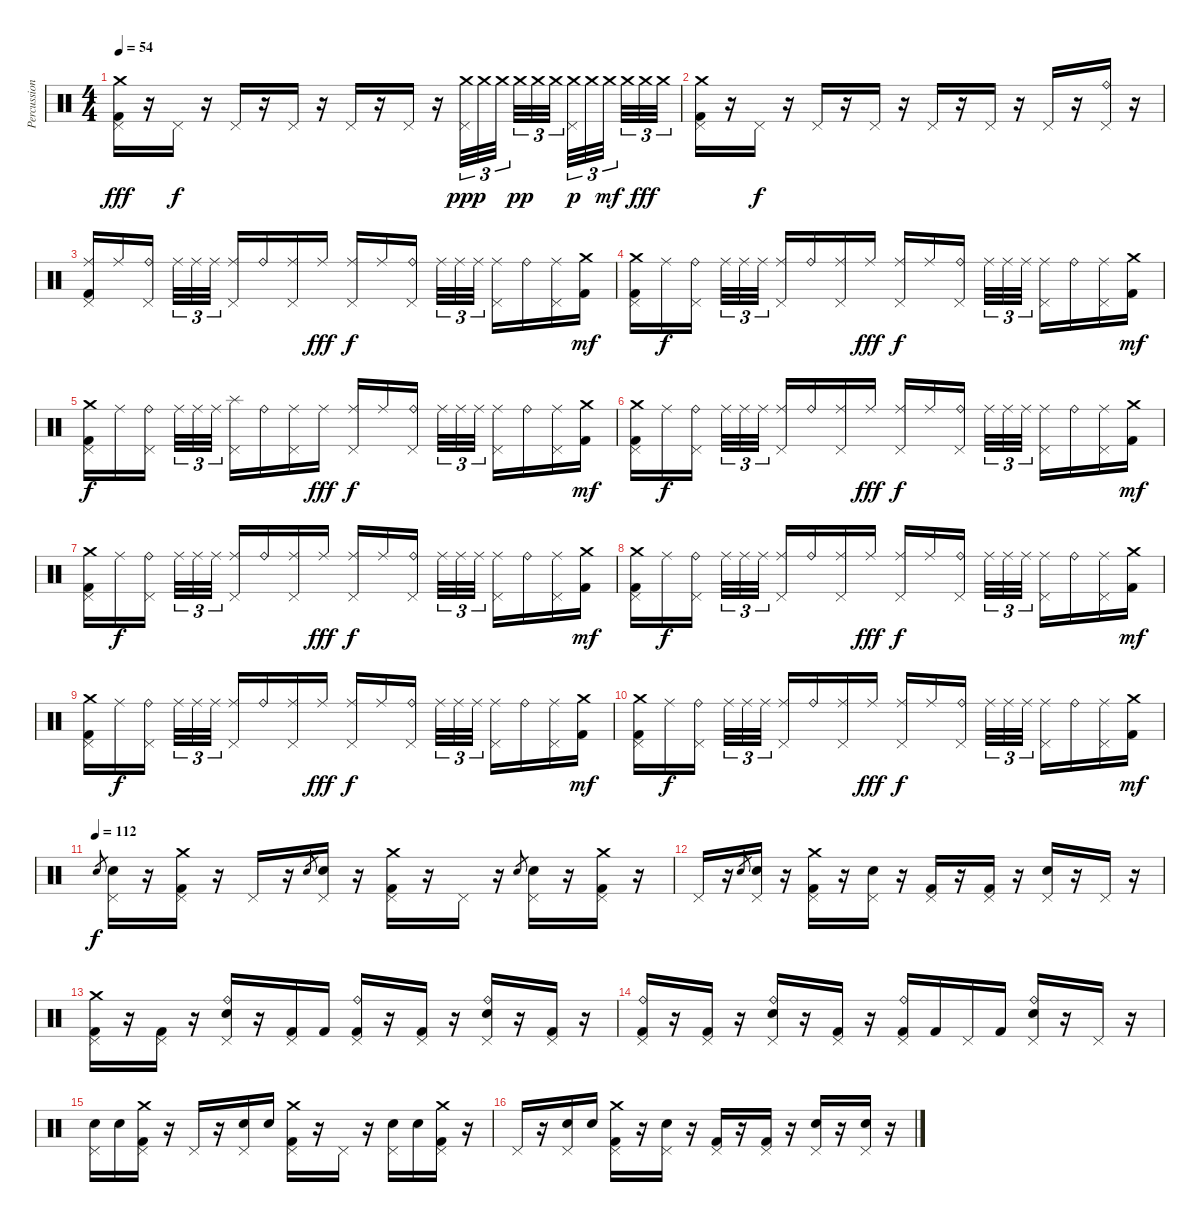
\track ("Percussion" "Percussion") {instrument percussion}
\staff {score}
\articulation defaults
\ts (4 4)
\tempo 54
\clef neutral
\ks c
("Crash medium (hit)" "Pedal Hi-Hat (hit)" "Kick (hit) 2").16{dy fff} r.16 "Pedal Hi-Hat (hit)".16{dy f} r.16 "Pedal Hi-Hat (hit)".16 r.16 "Pedal Hi-Hat (hit)".16 r.16 "Pedal Hi-Hat (hit)".16 r.16 "Pedal Hi-Hat (hit)".16 r.16 ("Crash medium (hit)" "Pedal Hi-Hat (hit)").32{tu (3 2) dy ppp} "Crash medium (hit)".32{tu (3 2)} "Crash medium (hit)".32{tu (3 2)} "Crash medium (hit)".32{tu (3 2) dy pp} "Crash medium (hit)".32{tu (3 2)} "Crash medium (hit)".32{tu (3 2)} ("Crash medium (hit)" "Pedal Hi-Hat (hit)").32{tu (3 2) dy p} "Crash medium (hit)".32{tu (3 2)} "Crash medium (hit)".32{tu (3 2) dy mf} "Crash medium (hit)".32{tu (3 2)} "Crash medium (hit)".32{tu (3 2) dy fff} "Crash medium (hit)".32{tu (3 2)} |
("Crash medium (hit)" "Pedal Hi-Hat (hit)" "Kick (hit) 2").16 r.16 "Pedal Hi-Hat (hit)".16{dy f} r.16 "Pedal Hi-Hat (hit)".16 r.16 "Pedal Hi-Hat (hit)".16 r.16 "Pedal Hi-Hat (hit)".16 r.16 "Pedal Hi-Hat (hit)".16 r.16 "Pedal Hi-Hat (hit)".16 r.16 ("Ride (bell)" "Pedal Hi-Hat (hit)").16 r.16 |
("Ride (middle)" "Pedal Hi-Hat (hit)" "Kick (hit) 2").16 "Ride (middle)".16 ("Ride (bell)" "Pedal Hi-Hat (hit)").16 "Ride (middle)".32{tu (3 2)} "Ride (middle)".32{tu (3 2)} "Ride (middle)".32{tu (3 2)} ("Ride (middle)" "Pedal Hi-Hat (hit)").16 "Ride (bell)".16 ("Ride (middle)" "Pedal Hi-Hat (hit)").16 "Ride (middle)".16{dy fff} ("Ride (middle)" "Pedal Hi-Hat (hit)").16{dy f} "Ride (middle)".16 ("Ride (bell)" "Pedal Hi-Hat (hit)").16 "Ride (middle)".32{tu (3 2)} "Ride (middle)".32{tu (3 2)} "Ride (middle)".32{tu (3 2)} ("Ride (middle)" "Pedal Hi-Hat (hit)").16 "Ride (bell)".16 ("Ride (middle)" "Pedal Hi-Hat (hit)").16 ("Crash medium (hit)" "Kick (hit) 2").16{dy mf} |
("Crash medium (hit)" "Pedal Hi-Hat (hit)" "Kick (hit) 2").16 "Ride (middle)".16{dy f} ("Ride (bell)" "Pedal Hi-Hat (hit)").16 "Ride (middle)".32{tu (3 2)} "Ride (middle)".32{tu (3 2)} "Ride (middle)".32{tu (3 2)} ("Ride (middle)" "Pedal Hi-Hat (hit)").16 "Ride (bell)".16 ("Ride (middle)" "Pedal Hi-Hat (hit)").16 "Ride (middle)".16{dy fff} ("Ride (middle)" "Pedal Hi-Hat (hit)").16{dy f} "Ride (middle)".16 ("Ride (bell)" "Pedal Hi-Hat (hit)").16 "Ride (middle)".32{tu (3 2)} "Ride (middle)".32{tu (3 2)} "Ride (middle)".32{tu (3 2)} ("Ride (middle)" "Pedal Hi-Hat (hit)").16 "Ride (bell)".16 ("Ride (middle)" "Pedal Hi-Hat (hit)").16 ("Crash medium (hit)" "Kick (hit) 2").16{dy mf} |
("Crash medium (hit)" "Pedal Hi-Hat (hit)" "Kick (hit) 2").16{dy f} "Ride (middle)".16 ("Ride (bell)" "Pedal Hi-Hat (hit)").16 "Ride (middle)".32{tu (3 2)} "Ride (middle)".32{tu (3 2)} "Ride (middle)".32{tu (3 2)} ("Splash (hit)" "Pedal Hi-Hat (hit)").16 "Ride (bell)".16 ("Ride (middle)" "Pedal Hi-Hat (hit)").16 "Ride (middle)".16{dy fff} ("Ride (middle)" "Pedal Hi-Hat (hit)").16{dy f} "Ride (middle)".16 ("Ride (bell)" "Pedal Hi-Hat (hit)").16 "Ride (middle)".32{tu (3 2)} "Ride (middle)".32{tu (3 2)} "Ride (middle)".32{tu (3 2)} ("Ride (middle)" "Pedal Hi-Hat (hit)").16 "Ride (bell)".16 ("Ride (middle)" "Pedal Hi-Hat (hit)").16 ("Crash medium (hit)" "Kick (hit) 2").16{dy mf} |
("Crash medium (hit)" "Pedal Hi-Hat (hit)" "Kick (hit) 2").16 "Ride (middle)".16{dy f} ("Ride (bell)" "Pedal Hi-Hat (hit)").16 "Ride (middle)".32{tu (3 2)} "Ride (middle)".32{tu (3 2)} "Ride (middle)".32{tu (3 2)} ("Ride (middle)" "Pedal Hi-Hat (hit)").16 "Ride (bell)".16 ("Ride (middle)" "Pedal Hi-Hat (hit)").16 "Ride (middle)".16{dy fff} ("Ride (middle)" "Pedal Hi-Hat (hit)").16{dy f} "Ride (middle)".16 ("Ride (bell)" "Pedal Hi-Hat (hit)").16 "Ride (middle)".32{tu (3 2)} "Ride (middle)".32{tu (3 2)} "Ride (middle)".32{tu (3 2)} ("Ride (middle)" "Pedal Hi-Hat (hit)").16 "Ride (bell)".16 ("Ride (middle)" "Pedal Hi-Hat (hit)").16 ("Crash medium (hit)" "Kick (hit) 2").16{dy mf} |
("Crash medium (hit)" "Pedal Hi-Hat (hit)" "Kick (hit) 2").16 "Ride (middle)".16{dy f} ("Ride (bell)" "Pedal Hi-Hat (hit)").16 "Ride (middle)".32{tu (3 2)} "Ride (middle)".32{tu (3 2)} "Ride (middle)".32{tu (3 2)} ("Ride (middle)" "Pedal Hi-Hat (hit)").16 "Ride (bell)".16 ("Ride (middle)" "Pedal Hi-Hat (hit)").16 "Ride (middle)".16{dy fff} ("Ride (middle)" "Pedal Hi-Hat (hit)").16{dy f} "Ride (middle)".16 ("Ride (bell)" "Pedal Hi-Hat (hit)").16 "Ride (middle)".32{tu (3 2)} "Ride (middle)".32{tu (3 2)} "Ride (middle)".32{tu (3 2)} ("Ride (middle)" "Pedal Hi-Hat (hit)").16 "Ride (bell)".16 ("Ride (middle)" "Pedal Hi-Hat (hit)").16 ("Crash medium (hit)" "Kick (hit) 2").16{dy mf} |
("Crash medium (hit)" "Pedal Hi-Hat (hit)" "Kick (hit) 2").16 "Ride (middle)".16{dy f} ("Ride (bell)" "Pedal Hi-Hat (hit)").16 "Ride (middle)".32{tu (3 2)} "Ride (middle)".32{tu (3 2)} "Ride (middle)".32{tu (3 2)} ("Ride (middle)" "Pedal Hi-Hat (hit)").16 "Ride (bell)".16 ("Ride (middle)" "Pedal Hi-Hat (hit)").16 "Ride (middle)".16{dy fff} ("Ride (middle)" "Pedal Hi-Hat (hit)").16{dy f} "Ride (middle)".16 ("Ride (bell)" "Pedal Hi-Hat (hit)").16 "Ride (middle)".32{tu (3 2)} "Ride (middle)".32{tu (3 2)} "Ride (middle)".32{tu (3 2)} ("Ride (middle)" "Pedal Hi-Hat (hit)").16 "Ride (bell)".16 ("Ride (middle)" "Pedal Hi-Hat (hit)").16 ("Crash medium (hit)" "Kick (hit) 2").16{dy mf} |
("Crash medium (hit)" "Pedal Hi-Hat (hit)" "Kick (hit) 2").16 "Ride (middle)".16{dy f} ("Ride (bell)" "Pedal Hi-Hat (hit)").16 "Ride (middle)".32{tu (3 2)} "Ride (middle)".32{tu (3 2)} "Ride (middle)".32{tu (3 2)} ("Ride (middle)" "Pedal Hi-Hat (hit)").16 "Ride (bell)".16 ("Ride (middle)" "Pedal Hi-Hat (hit)").16 "Ride (middle)".16{dy fff} ("Ride (middle)" "Pedal Hi-Hat (hit)").16{dy f} "Ride (middle)".16 ("Ride (bell)" "Pedal Hi-Hat (hit)").16 "Ride (middle)".32{tu (3 2)} "Ride (middle)".32{tu (3 2)} "Ride (middle)".32{tu (3 2)} ("Ride (middle)" "Pedal Hi-Hat (hit)").16 "Ride (bell)".16 ("Ride (middle)" "Pedal Hi-Hat (hit)").16 ("Crash medium (hit)" "Kick (hit) 2").16{dy mf} |
("Crash medium (hit)" "Pedal Hi-Hat (hit)" "Kick (hit) 2").16 "Ride (middle)".16{dy f} ("Ride (bell)" "Pedal Hi-Hat (hit)").16 "Ride (middle)".32{tu (3 2)} "Ride (middle)".32{tu (3 2)} "Ride (middle)".32{tu (3 2)} ("Ride (middle)" "Pedal Hi-Hat (hit)").16 "Ride (bell)".16 ("Ride (middle)" "Pedal Hi-Hat (hit)").16 "Ride (middle)".16{dy fff} ("Ride (middle)" "Pedal Hi-Hat (hit)").16{dy f} "Ride (middle)".16 ("Ride (bell)" "Pedal Hi-Hat (hit)").16 "Ride (middle)".32{tu (3 2)} "Ride (middle)".32{tu (3 2)} "Ride (middle)".32{tu (3 2)} ("Ride (middle)" "Pedal Hi-Hat (hit)").16 "Ride (bell)".16 ("Ride (middle)" "Pedal Hi-Hat (hit)").16 ("Crash medium (hit)" "Kick (hit) 2").16{dy mf} |
\tempo (112)
"Snare (hit) 2".8{gr dy f} ("Pedal Hi-Hat (hit)" "Snare (hit) 2").16{volume 13} r.16 ("Crash medium (hit)" "Pedal Hi-Hat (hit)" "Kick (hit) 2").16 r.16 "Pedal Hi-Hat (hit)".16 r.16 "Snare (hit) 2".8{gr} ("Pedal Hi-Hat (hit)" "Snare (hit) 2").16 r.16 ("Crash medium (hit)" "Pedal Hi-Hat (hit)" "Kick (hit) 2").16 r.16 "Pedal Hi-Hat (hit)".16 r.16 "Snare (hit) 2".8{gr} ("Pedal Hi-Hat (hit)" "Snare (hit) 2").16 r.16 ("Crash medium (hit)" "Pedal Hi-Hat (hit)" "Kick (hit) 2").16 r.16 |
"Pedal Hi-Hat (hit)".16 r.16 "Snare (hit) 2".8{gr} ("Pedal Hi-Hat (hit)" "Snare (hit) 2").16 r.16 ("Crash medium (hit)" "Pedal Hi-Hat (hit)" "Kick (hit) 2").16 r.16 ("Pedal Hi-Hat (hit)" "Snare (hit) 2").16 r.16 ("Pedal Hi-Hat (hit)" "Kick (hit) 2").16 r.16 ("Pedal Hi-Hat (hit)" "Kick (hit) 2").16 r.16 ("Pedal Hi-Hat (hit)" "Snare (hit) 2").16 r.16 "Pedal Hi-Hat (hit)".16 r.16 |
("Crash medium (hit)" "Pedal Hi-Hat (hit)" "Kick (hit) 2").16 r.16 ("Pedal Hi-Hat (hit)" "Kick (hit) 2").16 r.16 ("Pedal Hi-Hat (hit)" "Ride (bell)" "Snare (hit) 2").16 r.16 ("Pedal Hi-Hat (hit)" "Kick (hit) 2").16 "Kick (hit) 2".16 ("Pedal Hi-Hat (hit)" "Ride (bell)" "Kick (hit) 2").16 r.16 ("Pedal Hi-Hat (hit)" "Kick (hit) 2").16 r.16 ("Pedal Hi-Hat (hit)" "Ride (bell)" "Snare (hit) 2").16 r.16 ("Pedal Hi-Hat (hit)" "Kick (hit) 2").16 r.16 |
("Pedal Hi-Hat (hit)" "Ride (bell)" "Kick (hit) 2").16 r.16 ("Pedal Hi-Hat (hit)" "Kick (hit) 2").16 r.16 ("Pedal Hi-Hat (hit)" "Ride (bell)" "Snare (hit) 2").16 r.16 ("Pedal Hi-Hat (hit)" "Kick (hit) 2").16 r.16 ("Pedal Hi-Hat (hit)" "Ride (bell)" "Kick (hit) 2").16 "Kick (hit) 2".16 "Pedal Hi-Hat (hit)".16 "Kick (hit) 2".16 ("Pedal Hi-Hat (hit)" "Ride (bell)" "Snare (hit) 2").16 r.16 "Pedal Hi-Hat (hit)".16 r.16 |
("Pedal Hi-Hat (hit)" "Snare (hit) 2").16 "Snare (hit) 2".16 ("Crash medium (hit)" "Pedal Hi-Hat (hit)" "Kick (hit) 2").16 r.16 "Pedal Hi-Hat (hit)".16 r.16 ("Pedal Hi-Hat (hit)" "Snare (hit) 2").16 "Snare (hit) 2".16 ("Crash medium (hit)" "Pedal Hi-Hat (hit)" "Kick (hit) 2").16 r.16 "Pedal Hi-Hat (hit)".16 r.16 ("Pedal Hi-Hat (hit)" "Snare (hit) 2").16 "Snare (hit) 2".16 ("Crash medium (hit)" "Pedal Hi-Hat (hit)" "Kick (hit) 2").16 r.16 |
"Pedal Hi-Hat (hit)".16 r.16 ("Pedal Hi-Hat (hit)" "Snare (hit) 2").16 "Snare (hit) 2".16 ("Crash medium (hit)" "Pedal Hi-Hat (hit)" "Kick (hit) 2").16 r.16 ("Pedal Hi-Hat (hit)" "Snare (hit) 2").16 r.16 ("Pedal Hi-Hat (hit)" "Kick (hit) 2").16 r.16 ("Pedal Hi-Hat (hit)" "Kick (hit) 2").16 r.16 ("Pedal Hi-Hat (hit)" "Snare (hit) 2").16 r.16 ("Pedal Hi-Hat (hit)" "Snare (hit) 2").16 r.16
